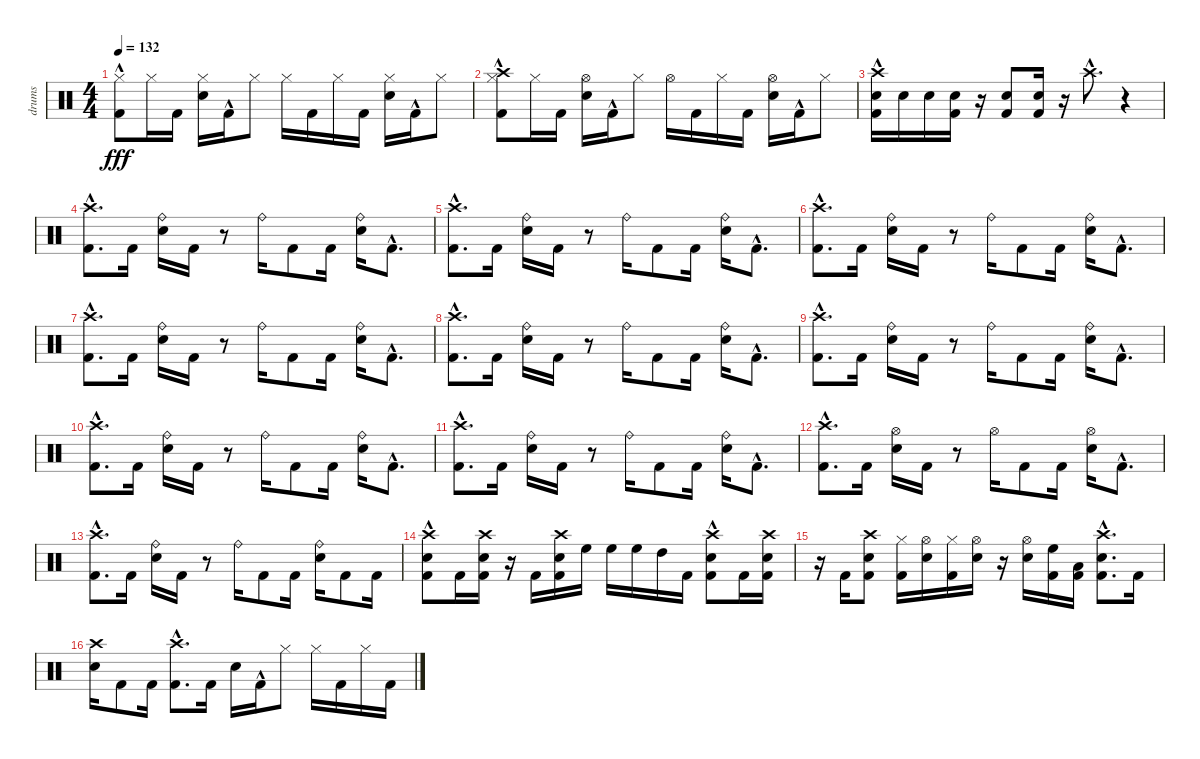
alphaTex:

\track ("drums" "drums") {instrument percussion}
\staff {score}
\articulation defaults
\ts (4 4)
\tempo 132
\clef neutral
\ks c
("Kick (hit) 2"{hac} "Hi-Hat (closed)").8{dy fff} "Hi-Hat (closed)".16 "Kick (hit) 2".16 ("Snare (hit) 2" "Hi-Hat (closed)").16 "Kick (hit) 2"{hac}.16 "Hi-Hat (closed)".8 "Hi-Hat (closed)".16 "Kick (hit) 2".16 "Hi-Hat (closed)".16 "Kick (hit) 2".16 ("Snare (hit) 2" "Hi-Hat (closed)").16 "Kick (hit) 2"{hac}.16 "Hi-Hat (closed)".8 |
("Kick (hit) 2"{hac} "Crash high (hit)" "Hi-Hat (closed)").8 "Hi-Hat (closed)".16 "Kick (hit) 2".16 ("Hi-Hat (open)" "Snare (hit) 2").16 "Kick (hit) 2"{hac}.16 "Hi-Hat (closed)".8 "Hi-Hat (open)".16 "Kick (hit) 2".16 "Hi-Hat (closed)".16 "Kick (hit) 2".16 ("Snare (hit) 2" "Hi-Hat (open)").16 "Kick (hit) 2"{hac}.16 "Hi-Hat (closed)".8 |
("Kick (hit) 2"{hac} "Snare (hit) 2" "Crash high (hit)").16 "Snare (hit) 2".16 "Snare (hit) 2".16 ("Kick (hit) 2" "Snare (hit) 2").16 r.16 ("Kick (hit) 2" "Snare (hit) 2").8 ("Kick (hit) 2" "Snare (hit) 2").16 r.16 "Crash high (hit)"{hac}.8{d} r.4 |
("Kick (hit) 2"{hac} "Crash high (hit)").8{d} "Kick (hit) 2".16 ("Snare (hit) 2" "Ride (bell)").16 "Kick (hit) 2".16 r.8 "Ride (bell)".16 "Kick (hit) 2".8 "Kick (hit) 2".16 ("Snare (hit) 2" "Ride (bell)").16 "Kick (hit) 2"{hac}.8{d} |
("Kick (hit) 2"{hac} "Crash high (hit)").8{d} "Kick (hit) 2".16 ("Snare (hit) 2" "Ride (bell)").16 "Kick (hit) 2".16 r.8 "Ride (bell)".16 "Kick (hit) 2".8 "Kick (hit) 2".16 ("Snare (hit) 2" "Ride (bell)").16 "Kick (hit) 2"{hac}.8{d} |
("Kick (hit) 2"{hac} "Crash high (hit)").8{d} "Kick (hit) 2".16 ("Snare (hit) 2" "Ride (bell)").16 "Kick (hit) 2".16 r.8 "Ride (bell)".16 "Kick (hit) 2".8 "Kick (hit) 2".16 ("Snare (hit) 2" "Ride (bell)").16 "Kick (hit) 2"{hac}.8{d} |
("Kick (hit) 2"{hac} "Crash high (hit)").8{d} "Kick (hit) 2".16 ("Snare (hit) 2" "Ride (bell)").16 "Kick (hit) 2".16 r.8 "Ride (bell)".16 "Kick (hit) 2".8 "Kick (hit) 2".16 ("Snare (hit) 2" "Ride (bell)").16 "Kick (hit) 2"{hac}.8{d} |
("Kick (hit) 2"{hac} "Crash high (hit)").8{d} "Kick (hit) 2".16 ("Snare (hit) 2" "Ride (bell)").16 "Kick (hit) 2".16 r.8 "Ride (bell)".16 "Kick (hit) 2".8 "Kick (hit) 2".16 ("Snare (hit) 2" "Ride (bell)").16 "Kick (hit) 2"{hac}.8{d} |
("Kick (hit) 2"{hac} "Crash high (hit)").8{d} "Kick (hit) 2".16 ("Snare (hit) 2" "Ride (bell)").16 "Kick (hit) 2".16 r.8 "Ride (bell)".16 "Kick (hit) 2".8 "Kick (hit) 2".16 ("Snare (hit) 2" "Ride (bell)").16 "Kick (hit) 2"{hac}.8{d} |
("Kick (hit) 2"{hac} "Crash high (hit)").8{d} "Kick (hit) 2".16 ("Snare (hit) 2" "Ride (bell)").16 "Kick (hit) 2".16 r.8 "Ride (bell)".16 "Kick (hit) 2".8 "Kick (hit) 2".16 ("Snare (hit) 2" "Ride (bell)").16 "Kick (hit) 2"{hac}.8{d} |
("Kick (hit) 2"{hac} "Crash high (hit)").8{d} "Kick (hit) 2".16 ("Snare (hit) 2" "Ride (bell)").16 "Kick (hit) 2".16 r.8 "Ride (bell)".16 "Kick (hit) 2".8 "Kick (hit) 2".16 ("Snare (hit) 2" "Ride (bell)").16 "Kick (hit) 2"{hac}.8{d} |
("Kick (hit) 2"{hac} "Crash high (hit)").8{d} "Kick (hit) 2".16 ("Snare (hit) 2" "Hi-Hat (open)").16 "Kick (hit) 2".16 r.8 "Hi-Hat (open)".16 "Kick (hit) 2".8 "Kick (hit) 2".16 ("Snare (hit) 2" "Hi-Hat (open)").16 "Kick (hit) 2"{hac}.8{d} |
("Kick (hit) 2"{hac} "Crash high (hit)").8{d} "Kick (hit) 2".16 ("Snare (hit) 2" "Ride (bell)").16 "Kick (hit) 2".16 r.8 "Ride (bell)".16 "Kick (hit) 2".8 "Kick (hit) 2".16 ("Snare (hit) 2" "Ride (bell)").16 "Kick (hit) 2".8 "Kick (hit) 2".16 |
("Kick (hit) 2" "Snare (hit) 2"{hac} "Crash high (hit)"{hac}).8 "Kick (hit) 2".16 ("Kick (hit) 2" "Snare (hit) 2" "Crash high (hit)").16 r.16 "Kick (hit) 2".16 ("Kick (hit) 2" "Snare (hit) 2" "Crash high (hit)").16 "High Floor Tom (hit)".16 "High Floor Tom (hit)".16 "High Floor Tom (hit)".16 "High Tom (hit)".16 "Kick (hit) 2".16 ("Kick (hit) 2" "Snare (hit) 2"{hac} "Crash high (hit)"{hac}).8 "Kick (hit) 2".16 ("Kick (hit) 2" "Snare (hit) 2" "Crash high (hit)").16 |
r.16 "Kick (hit) 2".16 ("Kick (hit) 2" "Snare (hit) 2" "Crash high (hit)").8 ("Kick (hit) 2" "Hi-Hat (closed)").16 ("Snare (hit) 2" "Hi-Hat (open)").16 ("Kick (hit) 2" "Hi-Hat (closed)").16 ("Snare (hit) 2" "Hi-Hat (open)").16 r.16 ("Snare (hit) 2" "Hi-Hat (open)").16 ("Kick (hit) 2" "High Floor Tom (hit)").16 ("Kick (hit) 2" "Low Tom (hit)").16 ("Kick (hit) 2"{hac} "Snare (hit) 2" "Crash high (hit)").8{d} "Kick (hit) 2".16 |
("Snare (hit) 2" "Crash high (hit)").16 "Kick (hit) 2".8 "Kick (hit) 2".16 ("Kick (hit) 2"{hac} "Crash high (hit)").8{d} "Kick (hit) 2".16 "Snare (hit) 2".16 "Kick (hit) 2"{hac}.16 "Hi-Hat (closed)".8 "Hi-Hat (closed)".16 "Kick (hit) 2".16 "Hi-Hat (closed)".16 "Kick (hit) 2".16
